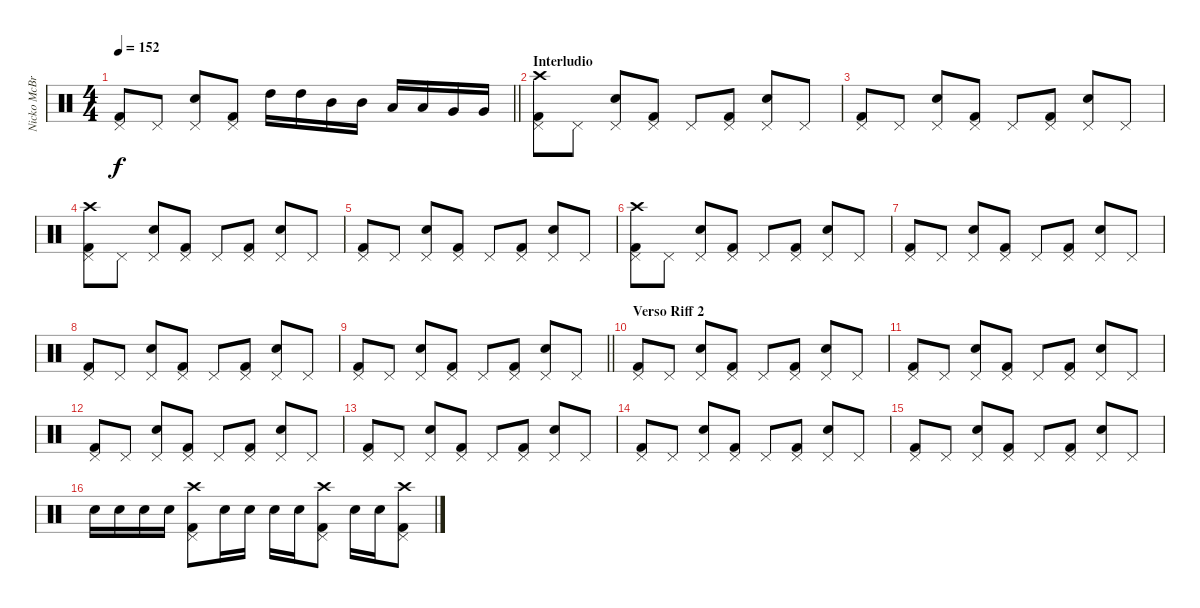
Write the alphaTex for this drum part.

\track ("Nicko McBrain" "Nicko McBr") {instrument percussion}
\staff {score}
\articulation defaults
\ts (4 4)
\tempo 152
\clef neutral
\barLineRight lightlight
\ks c
("Kick (hit) 2" "Pedal Hi-Hat (hit)").8{dy f} "Pedal Hi-Hat (hit)".8 ("Snare (hit) 2" "Pedal Hi-Hat (hit)").8 ("Kick (hit) 2" "Pedal Hi-Hat (hit)").8 "High Tom (hit)".16 "High Tom (hit)".16 "Mid Tom (hit)".16 "Mid Tom (hit)".16 "Low Tom (hit)".16 "Low Tom (hit)".16 "Very Low Tom (hit)".16 "Very Low Tom (hit)".16 |
\section ("" "Interludio")
("Kick (hit) 2" "Pedal Hi-Hat (hit)" "Crash high (hit)").8 "Pedal Hi-Hat (hit)".8 ("Snare (hit) 2" "Pedal Hi-Hat (hit)").8 ("Kick (hit) 2" "Pedal Hi-Hat (hit)").8 "Pedal Hi-Hat (hit)".8 ("Kick (hit) 2" "Pedal Hi-Hat (hit)").8 ("Snare (hit) 2" "Pedal Hi-Hat (hit)").8 "Pedal Hi-Hat (hit)".8 |
("Kick (hit) 2" "Pedal Hi-Hat (hit)").8 "Pedal Hi-Hat (hit)".8 ("Snare (hit) 2" "Pedal Hi-Hat (hit)").8 ("Kick (hit) 2" "Pedal Hi-Hat (hit)").8 "Pedal Hi-Hat (hit)".8 ("Kick (hit) 2" "Pedal Hi-Hat (hit)").8 ("Snare (hit) 2" "Pedal Hi-Hat (hit)").8 "Pedal Hi-Hat (hit)".8 |
("Kick (hit) 2" "Pedal Hi-Hat (hit)" "Crash high (hit)").8 "Pedal Hi-Hat (hit)".8 ("Snare (hit) 2" "Pedal Hi-Hat (hit)").8 ("Kick (hit) 2" "Pedal Hi-Hat (hit)").8 "Pedal Hi-Hat (hit)".8 ("Kick (hit) 2" "Pedal Hi-Hat (hit)").8 ("Snare (hit) 2" "Pedal Hi-Hat (hit)").8 "Pedal Hi-Hat (hit)".8 |
("Kick (hit) 2" "Pedal Hi-Hat (hit)").8 "Pedal Hi-Hat (hit)".8 ("Snare (hit) 2" "Pedal Hi-Hat (hit)").8 ("Kick (hit) 2" "Pedal Hi-Hat (hit)").8 "Pedal Hi-Hat (hit)".8 ("Kick (hit) 2" "Pedal Hi-Hat (hit)").8 ("Snare (hit) 2" "Pedal Hi-Hat (hit)").8 "Pedal Hi-Hat (hit)".8 |
("Kick (hit) 2" "Pedal Hi-Hat (hit)" "Crash high (hit)").8 "Pedal Hi-Hat (hit)".8 ("Snare (hit) 2" "Pedal Hi-Hat (hit)").8 ("Kick (hit) 2" "Pedal Hi-Hat (hit)").8 "Pedal Hi-Hat (hit)".8 ("Kick (hit) 2" "Pedal Hi-Hat (hit)").8 ("Snare (hit) 2" "Pedal Hi-Hat (hit)").8 "Pedal Hi-Hat (hit)".8 |
("Kick (hit) 2" "Pedal Hi-Hat (hit)").8 "Pedal Hi-Hat (hit)".8 ("Snare (hit) 2" "Pedal Hi-Hat (hit)").8 ("Kick (hit) 2" "Pedal Hi-Hat (hit)").8 "Pedal Hi-Hat (hit)".8 ("Kick (hit) 2" "Pedal Hi-Hat (hit)").8 ("Snare (hit) 2" "Pedal Hi-Hat (hit)").8 "Pedal Hi-Hat (hit)".8 |
("Kick (hit) 2" "Pedal Hi-Hat (hit)").8 "Pedal Hi-Hat (hit)".8 ("Snare (hit) 2" "Pedal Hi-Hat (hit)").8 ("Kick (hit) 2" "Pedal Hi-Hat (hit)").8 "Pedal Hi-Hat (hit)".8 ("Kick (hit) 2" "Pedal Hi-Hat (hit)").8 ("Snare (hit) 2" "Pedal Hi-Hat (hit)").8 "Pedal Hi-Hat (hit)".8 |
\barLineRight lightlight
("Kick (hit) 2" "Pedal Hi-Hat (hit)").8 "Pedal Hi-Hat (hit)".8 ("Snare (hit) 2" "Pedal Hi-Hat (hit)").8 ("Kick (hit) 2" "Pedal Hi-Hat (hit)").8 "Pedal Hi-Hat (hit)".8 ("Kick (hit) 2" "Pedal Hi-Hat (hit)").8 ("Snare (hit) 2" "Pedal Hi-Hat (hit)").8 "Pedal Hi-Hat (hit)".8 |
\section ("" "Verso Riff 2")
("Kick (hit) 2" "Pedal Hi-Hat (hit)").8 "Pedal Hi-Hat (hit)".8 ("Snare (hit) 2" "Pedal Hi-Hat (hit)").8 ("Kick (hit) 2" "Pedal Hi-Hat (hit)").8 "Pedal Hi-Hat (hit)".8 ("Kick (hit) 2" "Pedal Hi-Hat (hit)").8 ("Snare (hit) 2" "Pedal Hi-Hat (hit)").8 "Pedal Hi-Hat (hit)".8 |
("Kick (hit) 2" "Pedal Hi-Hat (hit)").8 "Pedal Hi-Hat (hit)".8 ("Snare (hit) 2" "Pedal Hi-Hat (hit)").8 ("Kick (hit) 2" "Pedal Hi-Hat (hit)").8 "Pedal Hi-Hat (hit)".8 ("Kick (hit) 2" "Pedal Hi-Hat (hit)").8 ("Snare (hit) 2" "Pedal Hi-Hat (hit)").8 "Pedal Hi-Hat (hit)".8 |
("Kick (hit) 2" "Pedal Hi-Hat (hit)").8 "Pedal Hi-Hat (hit)".8 ("Snare (hit) 2" "Pedal Hi-Hat (hit)").8 ("Kick (hit) 2" "Pedal Hi-Hat (hit)").8 "Pedal Hi-Hat (hit)".8 ("Kick (hit) 2" "Pedal Hi-Hat (hit)").8 ("Snare (hit) 2" "Pedal Hi-Hat (hit)").8 "Pedal Hi-Hat (hit)".8 |
("Kick (hit) 2" "Pedal Hi-Hat (hit)").8 "Pedal Hi-Hat (hit)".8 ("Snare (hit) 2" "Pedal Hi-Hat (hit)").8 ("Kick (hit) 2" "Pedal Hi-Hat (hit)").8 "Pedal Hi-Hat (hit)".8 ("Kick (hit) 2" "Pedal Hi-Hat (hit)").8 ("Snare (hit) 2" "Pedal Hi-Hat (hit)").8 "Pedal Hi-Hat (hit)".8 |
("Kick (hit) 2" "Pedal Hi-Hat (hit)").8 "Pedal Hi-Hat (hit)".8 ("Snare (hit) 2" "Pedal Hi-Hat (hit)").8 ("Kick (hit) 2" "Pedal Hi-Hat (hit)").8 "Pedal Hi-Hat (hit)".8 ("Kick (hit) 2" "Pedal Hi-Hat (hit)").8 ("Snare (hit) 2" "Pedal Hi-Hat (hit)").8 "Pedal Hi-Hat (hit)".8 |
("Kick (hit) 2" "Pedal Hi-Hat (hit)").8 "Pedal Hi-Hat (hit)".8 ("Snare (hit) 2" "Pedal Hi-Hat (hit)").8 ("Kick (hit) 2" "Pedal Hi-Hat (hit)").8 "Pedal Hi-Hat (hit)".8 ("Kick (hit) 2" "Pedal Hi-Hat (hit)").8 ("Snare (hit) 2" "Pedal Hi-Hat (hit)").8 "Pedal Hi-Hat (hit)".8 |
"Snare (hit) 2".16 "Snare (hit) 2".16 "Snare (hit) 2".16 "Snare (hit) 2".16 ("Kick (hit) 2" "Pedal Hi-Hat (hit)" "Crash high (hit)").8 "Snare (hit) 2".16 "Snare (hit) 2".16 "Snare (hit) 2".16 "Snare (hit) 2".16 ("Kick (hit) 2" "Pedal Hi-Hat (hit)" "Crash high (hit)").8 "Snare (hit) 2".16 "Snare (hit) 2".16 ("Kick (hit) 2" "Pedal Hi-Hat (hit)" "Crash high (hit)").8
